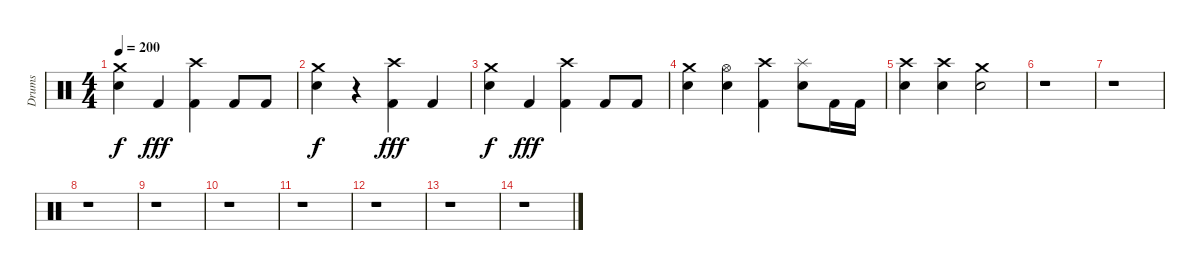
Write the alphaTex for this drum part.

\track ("Drums" "Drums") {instrument percussion}
\staff {score}
\articulation defaults
\ts (4 4)
\tempo 200
\clef neutral
\ks c
("Electric Snare (hit)" "Crash medium (hit)").4{dy f} "Kick (hit) 2".4{dy fff} ("Crash high (hit)" "Kick (hit) 2").4 "Kick (hit) 2".8 "Kick (hit) 2".8 |
("Electric Snare (hit)" "Crash medium (hit)").4{dy f} r.4 ("Crash high (hit)" "Kick (hit) 2").4{dy fff} "Kick (hit) 2".4 |
("Electric Snare (hit)" "Crash medium (hit)").4{dy f} "Kick (hit) 2".4{dy fff} ("Crash high (hit)" "Kick (hit) 2").4 "Kick (hit) 2".8 "Kick (hit) 2".8 |
("Crash medium (hit)" "Electric Snare (hit)").4 ("Hi-Hat (open)" "Electric Snare (hit)").4 ("Crash high (hit)" "Kick (hit) 2").4 ("Splash (hit)" "Electric Snare (hit)").8 "Kick (hit) 2".16 "Kick (hit) 2".16 |
("Electric Snare (hit)" "Crash high (hit)").4 ("Electric Snare (hit)" "Crash high (hit)").4 ("Electric Snare (hit)" "Crash medium (hit)").2 |
r.1 |
r.1 |
r.1 |
r.1 |
r.1 |
r.1 |
r.1 |
r.1 |
r.1
